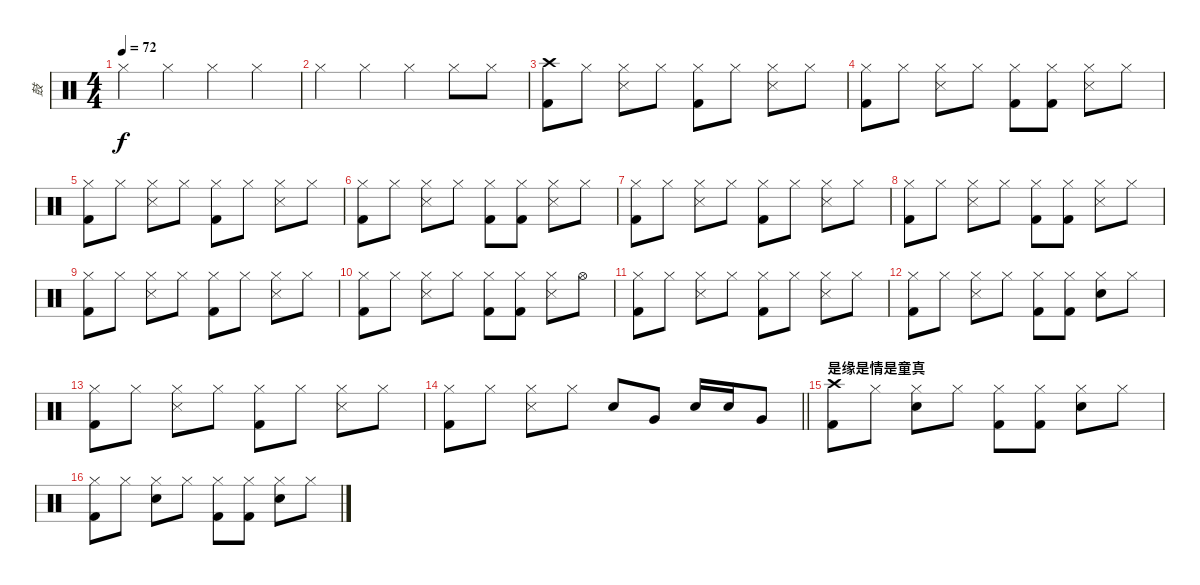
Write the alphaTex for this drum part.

\track ("鼓" "鼓") {instrument percussion}
\staff {score}
\articulation defaults
\ts (4 4)
\tempo 72
\clef neutral
\ks c "Hi-Hat (closed)".4{dy f} "Hi-Hat (closed)".4 "Hi-Hat (closed)".4 "Hi-Hat (closed)".4
|
"Hi-Hat (closed)".4 "Hi-Hat (closed)".4 "Hi-Hat (closed)".4 "Hi-Hat (closed)".8 "Hi-Hat (closed)".8 |
("Crash high (hit)" "Kick (hit) 2").8 "Hi-Hat (closed)".8 ("Hi-Hat (closed)" "Snare (side stick) 3").8 "Hi-Hat (closed)".8 ("Hi-Hat (closed)" "Kick (hit) 2").8 "Hi-Hat (closed)".8 ("Hi-Hat (closed)" "Snare (side stick) 3").8 "Hi-Hat (closed)".8 |
("Hi-Hat (closed)" "Kick (hit) 2").8 "Hi-Hat (closed)".8 ("Hi-Hat (closed)" "Snare (side stick) 3").8 "Hi-Hat (closed)".8 ("Hi-Hat (closed)" "Kick (hit) 2").8 ("Hi-Hat (closed)" "Kick (hit) 2").8 ("Hi-Hat (closed)" "Snare (side stick) 3").8 "Hi-Hat (closed)".8 |
("Hi-Hat (closed)" "Kick (hit) 2").8 "Hi-Hat (closed)".8 ("Hi-Hat (closed)" "Snare (side stick) 3").8 "Hi-Hat (closed)".8 ("Hi-Hat (closed)" "Kick (hit) 2").8 "Hi-Hat (closed)".8 ("Hi-Hat (closed)" "Snare (side stick) 3").8 "Hi-Hat (closed)".8 |
("Hi-Hat (closed)" "Kick (hit) 2").8 "Hi-Hat (closed)".8 ("Hi-Hat (closed)" "Snare (side stick) 3").8 "Hi-Hat (closed)".8 ("Hi-Hat (closed)" "Kick (hit) 2").8 ("Hi-Hat (closed)" "Kick (hit) 2").8 ("Hi-Hat (closed)" "Snare (side stick) 3").8 "Hi-Hat (closed)".8 |
("Hi-Hat (closed)" "Kick (hit) 2").8 "Hi-Hat (closed)".8 ("Hi-Hat (closed)" "Snare (side stick) 3").8 "Hi-Hat (closed)".8 ("Hi-Hat (closed)" "Kick (hit) 2").8 "Hi-Hat (closed)".8 ("Hi-Hat (closed)" "Snare (side stick) 3").8 "Hi-Hat (closed)".8 |
("Hi-Hat (closed)" "Kick (hit) 2").8 "Hi-Hat (closed)".8 ("Hi-Hat (closed)" "Snare (side stick) 3").8 "Hi-Hat (closed)".8 ("Hi-Hat (closed)" "Kick (hit) 2").8 ("Hi-Hat (closed)" "Kick (hit) 2").8 ("Hi-Hat (closed)" "Snare (side stick) 3").8 "Hi-Hat (closed)".8 |
("Hi-Hat (closed)" "Kick (hit) 2").8 "Hi-Hat (closed)".8 ("Hi-Hat (closed)" "Snare (side stick) 3").8 "Hi-Hat (closed)".8 ("Hi-Hat (closed)" "Kick (hit) 2").8 "Hi-Hat (closed)".8 ("Hi-Hat (closed)" "Snare (side stick) 3").8 "Hi-Hat (closed)".8 |
("Hi-Hat (closed)" "Kick (hit) 2").8 "Hi-Hat (closed)".8 ("Hi-Hat (closed)" "Snare (side stick) 3").8 "Hi-Hat (closed)".8 ("Hi-Hat (closed)" "Kick (hit) 2").8 ("Hi-Hat (closed)" "Kick (hit) 2").8 ("Hi-Hat (closed)" "Snare (side stick) 3").8 "Hi-Hat (open)".8 |
("Hi-Hat (closed)" "Kick (hit) 2").8 "Hi-Hat (closed)".8 ("Hi-Hat (closed)" "Snare (side stick) 3").8 "Hi-Hat (closed)".8 ("Hi-Hat (closed)" "Kick (hit) 2").8 "Hi-Hat (closed)".8 ("Hi-Hat (closed)" "Snare (side stick) 3").8 "Hi-Hat (closed)".8 |
("Hi-Hat (closed)" "Kick (hit) 2").8 "Hi-Hat (closed)".8 ("Hi-Hat (closed)" "Snare (side stick) 3").8 "Hi-Hat (closed)".8 ("Hi-Hat (closed)" "Kick (hit) 2").8 ("Hi-Hat (closed)" "Kick (hit) 2").8 ("Hi-Hat (closed)" "Electric Snare (hit)").8 "Hi-Hat (closed)".8 |
("Hi-Hat (closed)" "Kick (hit) 2").8 "Hi-Hat (closed)".8 ("Hi-Hat (closed)" "Snare (side stick) 3").8 "Hi-Hat (closed)".8 ("Hi-Hat (closed)" "Kick (hit) 2").8 "Hi-Hat (closed)".8 ("Hi-Hat (closed)" "Snare (side stick) 3").8 "Hi-Hat (closed)".8 |
\barLineRight lightlight
("Hi-Hat (closed)" "Kick (hit) 2").8 "Hi-Hat (closed)".8 ("Hi-Hat (closed)" "Snare (side stick) 3").8 "Hi-Hat (closed)".8 "Electric Snare (hit)".8 "Very Low Tom (hit)".8 "Electric Snare (hit)".16 "Electric Snare (hit)".16 "Very Low Tom (hit)".8 |
\section ("" "是缘是情是童真")
("Crash high (hit)" "Kick (hit) 2").8 "Hi-Hat (closed)".8 ("Hi-Hat (closed)" "Electric Snare (hit)").8 "Hi-Hat (closed)".8 ("Hi-Hat (closed)" "Kick (hit) 2").8 ("Hi-Hat (closed)" "Kick (hit) 2").8 ("Hi-Hat (closed)" "Electric Snare (hit)").8 "Hi-Hat (closed)".8 |
("Hi-Hat (closed)" "Kick (hit) 2").8 "Hi-Hat (closed)".8 ("Hi-Hat (closed)" "Electric Snare (hit)").8 "Hi-Hat (closed)".8 ("Hi-Hat (closed)" "Kick (hit) 2").8 ("Hi-Hat (closed)" "Kick (hit) 2").8 ("Hi-Hat (closed)" "Electric Snare (hit)").8 "Hi-Hat (closed)".8
